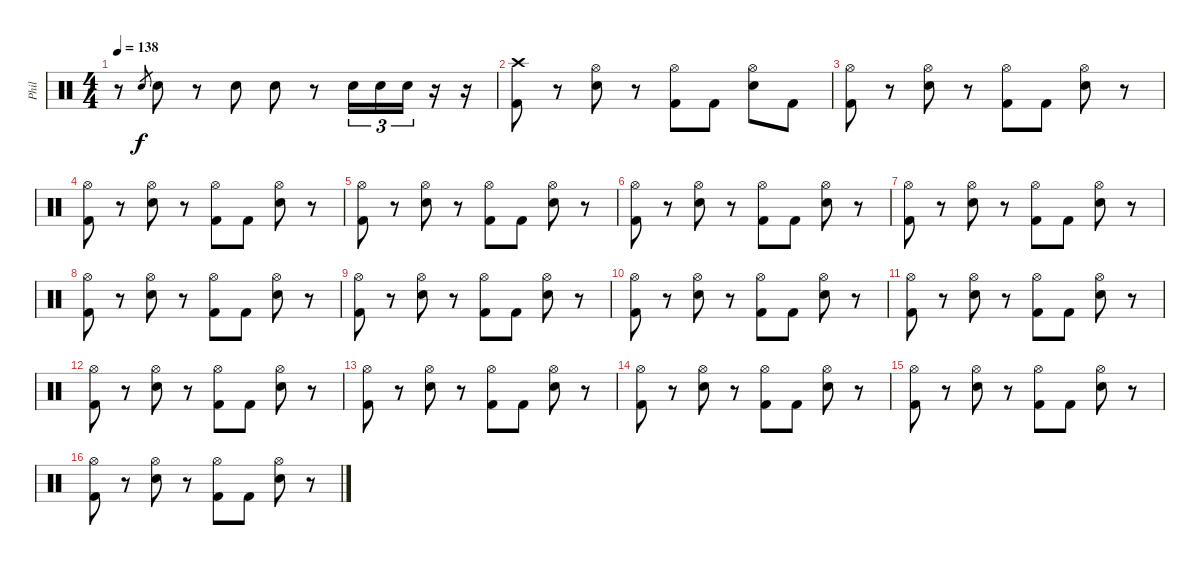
\track ("Phil" "Phil") {instrument percussion}
\staff {score}
\articulation defaults
\ts (4 4)
\tempo 138
\clef neutral
\ks c
r.8{dy f} "Snare (hit) 2".8{gr} "Snare (hit) 2".8 r.8 "Snare (hit) 2".8 "Snare (hit) 2".8 r.8 "Snare (hit) 2".16{tu (3 2)} "Snare (hit) 2".16{tu (3 2)} "Snare (hit) 2".16{tu (3 2)} r.16 r.16 |
("Crash high (hit)" "Kick (hit) 2").8 r.8 ("Hi-Hat (open)" "Snare (hit) 2").8 r.8 ("Hi-Hat (open)" "Kick (hit) 2").8 "Kick (hit) 2".8 ("Hi-Hat (open)" "Snare (hit) 2").8 "Kick (hit) 2".8 |
("Hi-Hat (open)" "Kick (hit) 2").8 r.8 ("Hi-Hat (open)" "Snare (hit) 2").8 r.8 ("Hi-Hat (open)" "Kick (hit) 2").8 "Kick (hit) 2".8 ("Hi-Hat (open)" "Snare (hit) 2").8 r.8 |
("Hi-Hat (open)" "Kick (hit) 2").8 r.8 ("Hi-Hat (open)" "Snare (hit) 2").8 r.8 ("Hi-Hat (open)" "Kick (hit) 2").8 "Kick (hit) 2".8 ("Hi-Hat (open)" "Snare (hit) 2").8 r.8 |
("Hi-Hat (open)" "Kick (hit) 2").8 r.8 ("Hi-Hat (open)" "Snare (hit) 2").8 r.8 ("Hi-Hat (open)" "Kick (hit) 2").8 "Kick (hit) 2".8 ("Hi-Hat (open)" "Snare (hit) 2").8 r.8 |
("Hi-Hat (open)" "Kick (hit) 2").8 r.8 ("Hi-Hat (open)" "Snare (hit) 2").8 r.8 ("Hi-Hat (open)" "Kick (hit) 2").8 "Kick (hit) 2".8 ("Hi-Hat (open)" "Snare (hit) 2").8 r.8 |
("Hi-Hat (open)" "Kick (hit) 2").8 r.8 ("Hi-Hat (open)" "Snare (hit) 2").8 r.8 ("Hi-Hat (open)" "Kick (hit) 2").8 "Kick (hit) 2".8 ("Hi-Hat (open)" "Snare (hit) 2").8 r.8 |
("Hi-Hat (open)" "Kick (hit) 2").8 r.8 ("Hi-Hat (open)" "Snare (hit) 2").8 r.8 ("Hi-Hat (open)" "Kick (hit) 2").8 "Kick (hit) 2".8 ("Hi-Hat (open)" "Snare (hit) 2").8 r.8 |
("Hi-Hat (open)" "Kick (hit) 2").8 r.8 ("Hi-Hat (open)" "Snare (hit) 2").8 r.8 ("Hi-Hat (open)" "Kick (hit) 2").8 "Kick (hit) 2".8 ("Hi-Hat (open)" "Snare (hit) 2").8 r.8 |
("Hi-Hat (open)" "Kick (hit) 2").8 r.8 ("Hi-Hat (open)" "Snare (hit) 2").8 r.8 ("Hi-Hat (open)" "Kick (hit) 2").8 "Kick (hit) 2".8 ("Hi-Hat (open)" "Snare (hit) 2").8 r.8 |
("Hi-Hat (open)" "Kick (hit) 2").8 r.8 ("Hi-Hat (open)" "Snare (hit) 2").8 r.8 ("Hi-Hat (open)" "Kick (hit) 2").8 "Kick (hit) 2".8 ("Hi-Hat (open)" "Snare (hit) 2").8 r.8 |
("Hi-Hat (open)" "Kick (hit) 2").8 r.8 ("Hi-Hat (open)" "Snare (hit) 2").8 r.8 ("Hi-Hat (open)" "Kick (hit) 2").8 "Kick (hit) 2".8 ("Hi-Hat (open)" "Snare (hit) 2").8 r.8 |
("Hi-Hat (open)" "Kick (hit) 2").8 r.8 ("Hi-Hat (open)" "Snare (hit) 2").8 r.8 ("Hi-Hat (open)" "Kick (hit) 2").8 "Kick (hit) 2".8 ("Hi-Hat (open)" "Snare (hit) 2").8 r.8 |
("Hi-Hat (open)" "Kick (hit) 2").8 r.8 ("Hi-Hat (open)" "Snare (hit) 2").8 r.8 ("Hi-Hat (open)" "Kick (hit) 2").8 "Kick (hit) 2".8 ("Hi-Hat (open)" "Snare (hit) 2").8 r.8 |
("Hi-Hat (open)" "Kick (hit) 2").8 r.8 ("Hi-Hat (open)" "Snare (hit) 2").8 r.8 ("Hi-Hat (open)" "Kick (hit) 2").8 "Kick (hit) 2".8 ("Hi-Hat (open)" "Snare (hit) 2").8 r.8 |
("Hi-Hat (open)" "Kick (hit) 2").8 r.8 ("Hi-Hat (open)" "Snare (hit) 2").8 r.8 ("Hi-Hat (open)" "Kick (hit) 2").8 "Kick (hit) 2".8 ("Hi-Hat (open)" "Snare (hit) 2").8 r.8
